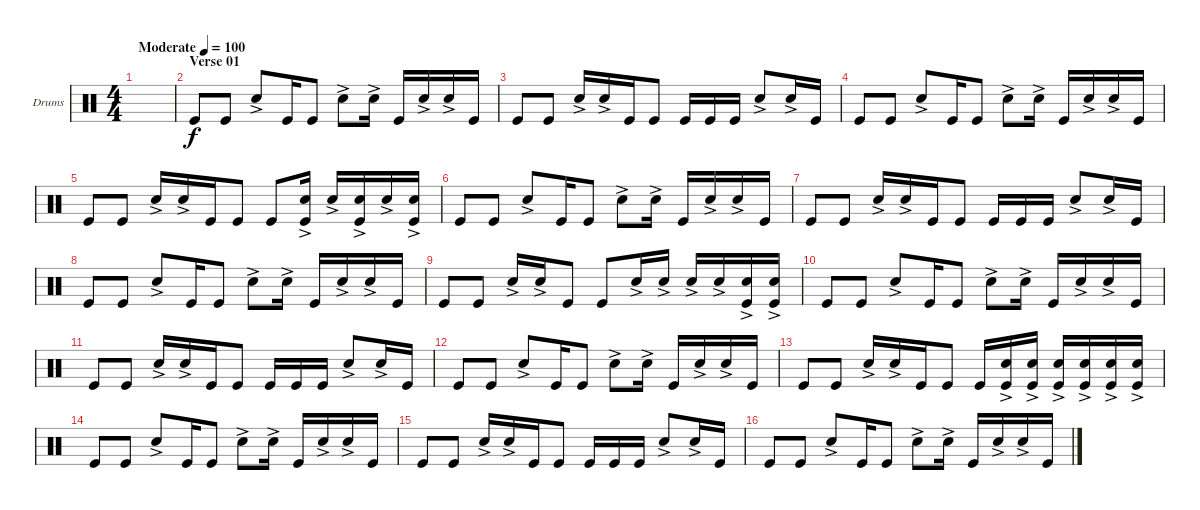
\bracketExtendMode groupsimilarinstruments
\firstSystemTrackNameOrientation horizontal
\otherSystemsTrackNameOrientation horizontal
\track ("Drums rhythm" "Drums") {instrument percussion}
\staff {score}
\articulation defaults
\ts (4 4)
\tempo (100 "Moderate")
\clef neutral
\ks c
|
\section ("" "Verse 01")
"Kick (hit)".8 "Kick (hit)".8 "Snare (hit) 2"{ac}.8 "Kick (hit)".16 "Kick (hit)".8 "Snare (hit) 2"{ac}.8 "Snare (hit) 2"{ac}.16 "Kick (hit)".16 "Snare (hit) 2"{ac}.16 "Snare (hit) 2"{ac}.16 "Kick (hit)".16 |
"Kick (hit)".8 "Kick (hit)".8 "Snare (hit) 2"{ac}.16 "Snare (hit) 2"{ac}.16 "Kick (hit)".16 "Kick (hit)".8 "Kick (hit)".16 "Kick (hit)".16 "Kick (hit)".16 "Snare (hit) 2"{ac}.8 "Snare (hit) 2"{ac}.16 "Kick (hit)".16 |
"Kick (hit)".8 "Kick (hit)".8 "Snare (hit) 2"{ac}.8 "Kick (hit)".16 "Kick (hit)".8 "Snare (hit) 2"{ac}.8 "Snare (hit) 2"{ac}.16 "Kick (hit)".16 "Snare (hit) 2"{ac}.16 "Snare (hit) 2"{ac}.16 "Kick (hit)".16 |
"Kick (hit)".8 "Kick (hit)".8 "Snare (hit) 2"{ac}.16 "Snare (hit) 2"{ac}.16 "Kick (hit)".16 "Kick (hit)".8 "Kick (hit)".8 ("Snare (hit) 2"{ac} "Kick (hit)").16 "Snare (hit) 2"{ac}.16 ("Snare (hit) 2"{ac} "Kick (hit)").16 "Snare (hit) 2"{ac}.16 ("Snare (hit) 2"{ac} "Kick (hit)").16 |
"Kick (hit)".8 "Kick (hit)".8 "Snare (hit) 2"{ac}.8 "Kick (hit)".16 "Kick (hit)".8 "Snare (hit) 2"{ac}.8 "Snare (hit) 2"{ac}.16 "Kick (hit)".16 "Snare (hit) 2"{ac}.16 "Snare (hit) 2"{ac}.16 "Kick (hit)".16 |
"Kick (hit)".8 "Kick (hit)".8 "Snare (hit) 2"{ac}.16 "Snare (hit) 2"{ac}.16 "Kick (hit)".16 "Kick (hit)".8 "Kick (hit)".16 "Kick (hit)".16 "Kick (hit)".16 "Snare (hit) 2"{ac}.8 "Snare (hit) 2"{ac}.16 "Kick (hit)".16 |
"Kick (hit)".8 "Kick (hit)".8 "Snare (hit) 2"{ac}.8 "Kick (hit)".16 "Kick (hit)".8 "Snare (hit) 2"{ac}.8 "Snare (hit) 2"{ac}.16 "Kick (hit)".16 "Snare (hit) 2"{ac}.16 "Snare (hit) 2"{ac}.16 "Kick (hit)".16 |
"Kick (hit)".8 "Kick (hit)".8 "Snare (hit) 2"{ac}.16 "Snare (hit) 2"{ac}.16 "Kick (hit)".8 "Kick (hit)".8 "Snare (hit) 2"{ac}.16 "Snare (hit) 2"{ac}.16 "Snare (hit) 2"{ac}.16 "Snare (hit) 2"{ac}.16 ("Snare (hit) 2"{ac} "Kick (hit)").16 ("Snare (hit) 2"{ac} "Kick (hit)").16 |
"Kick (hit)".8 "Kick (hit)".8 "Snare (hit) 2"{ac}.8 "Kick (hit)".16 "Kick (hit)".8 "Snare (hit) 2"{ac}.8 "Snare (hit) 2"{ac}.16 "Kick (hit)".16 "Snare (hit) 2"{ac}.16 "Snare (hit) 2"{ac}.16 "Kick (hit)".16 |
"Kick (hit)".8 "Kick (hit)".8 "Snare (hit) 2"{ac}.16 "Snare (hit) 2"{ac}.16 "Kick (hit)".16 "Kick (hit)".8 "Kick (hit)".16 "Kick (hit)".16 "Kick (hit)".16 "Snare (hit) 2"{ac}.8 "Snare (hit) 2"{ac}.16 "Kick (hit)".16 |
"Kick (hit)".8 "Kick (hit)".8 "Snare (hit) 2"{ac}.8 "Kick (hit)".16 "Kick (hit)".8 "Snare (hit) 2"{ac}.8 "Snare (hit) 2"{ac}.16 "Kick (hit)".16 "Snare (hit) 2"{ac}.16 "Snare (hit) 2"{ac}.16 "Kick (hit)".16 |
"Kick (hit)".8 "Kick (hit)".8 "Snare (hit) 2"{ac}.16 "Snare (hit) 2"{ac}.16 "Kick (hit)".16 "Kick (hit)".8 "Kick (hit)".16 ("Kick (hit)" "Snare (hit) 2"{ac}).16 ("Snare (hit) 2"{ac} "Kick (hit)").16 ("Snare (hit) 2"{ac} "Kick (hit)").16 ("Snare (hit) 2"{ac} "Kick (hit)").16 ("Snare (hit) 2"{ac} "Kick (hit)").16 ("Snare (hit) 2"{ac} "Kick (hit)").16 |
"Kick (hit)".8 "Kick (hit)".8 "Snare (hit) 2"{ac}.8 "Kick (hit)".16 "Kick (hit)".8 "Snare (hit) 2"{ac}.8 "Snare (hit) 2"{ac}.16 "Kick (hit)".16 "Snare (hit) 2"{ac}.16 "Snare (hit) 2"{ac}.16 "Kick (hit)".16 |
"Kick (hit)".8 "Kick (hit)".8 "Snare (hit) 2"{ac}.16 "Snare (hit) 2"{ac}.16 "Kick (hit)".16 "Kick (hit)".8 "Kick (hit)".16 "Kick (hit)".16 "Kick (hit)".16 "Snare (hit) 2"{ac}.8 "Snare (hit) 2"{ac}.16 "Kick (hit)".16 |
"Kick (hit)".8 "Kick (hit)".8 "Snare (hit) 2"{ac}.8 "Kick (hit)".16 "Kick (hit)".8 "Snare (hit) 2"{ac}.8 "Snare (hit) 2"{ac}.16 "Kick (hit)".16 "Snare (hit) 2"{ac}.16 "Snare (hit) 2"{ac}.16 "Kick (hit)".16
